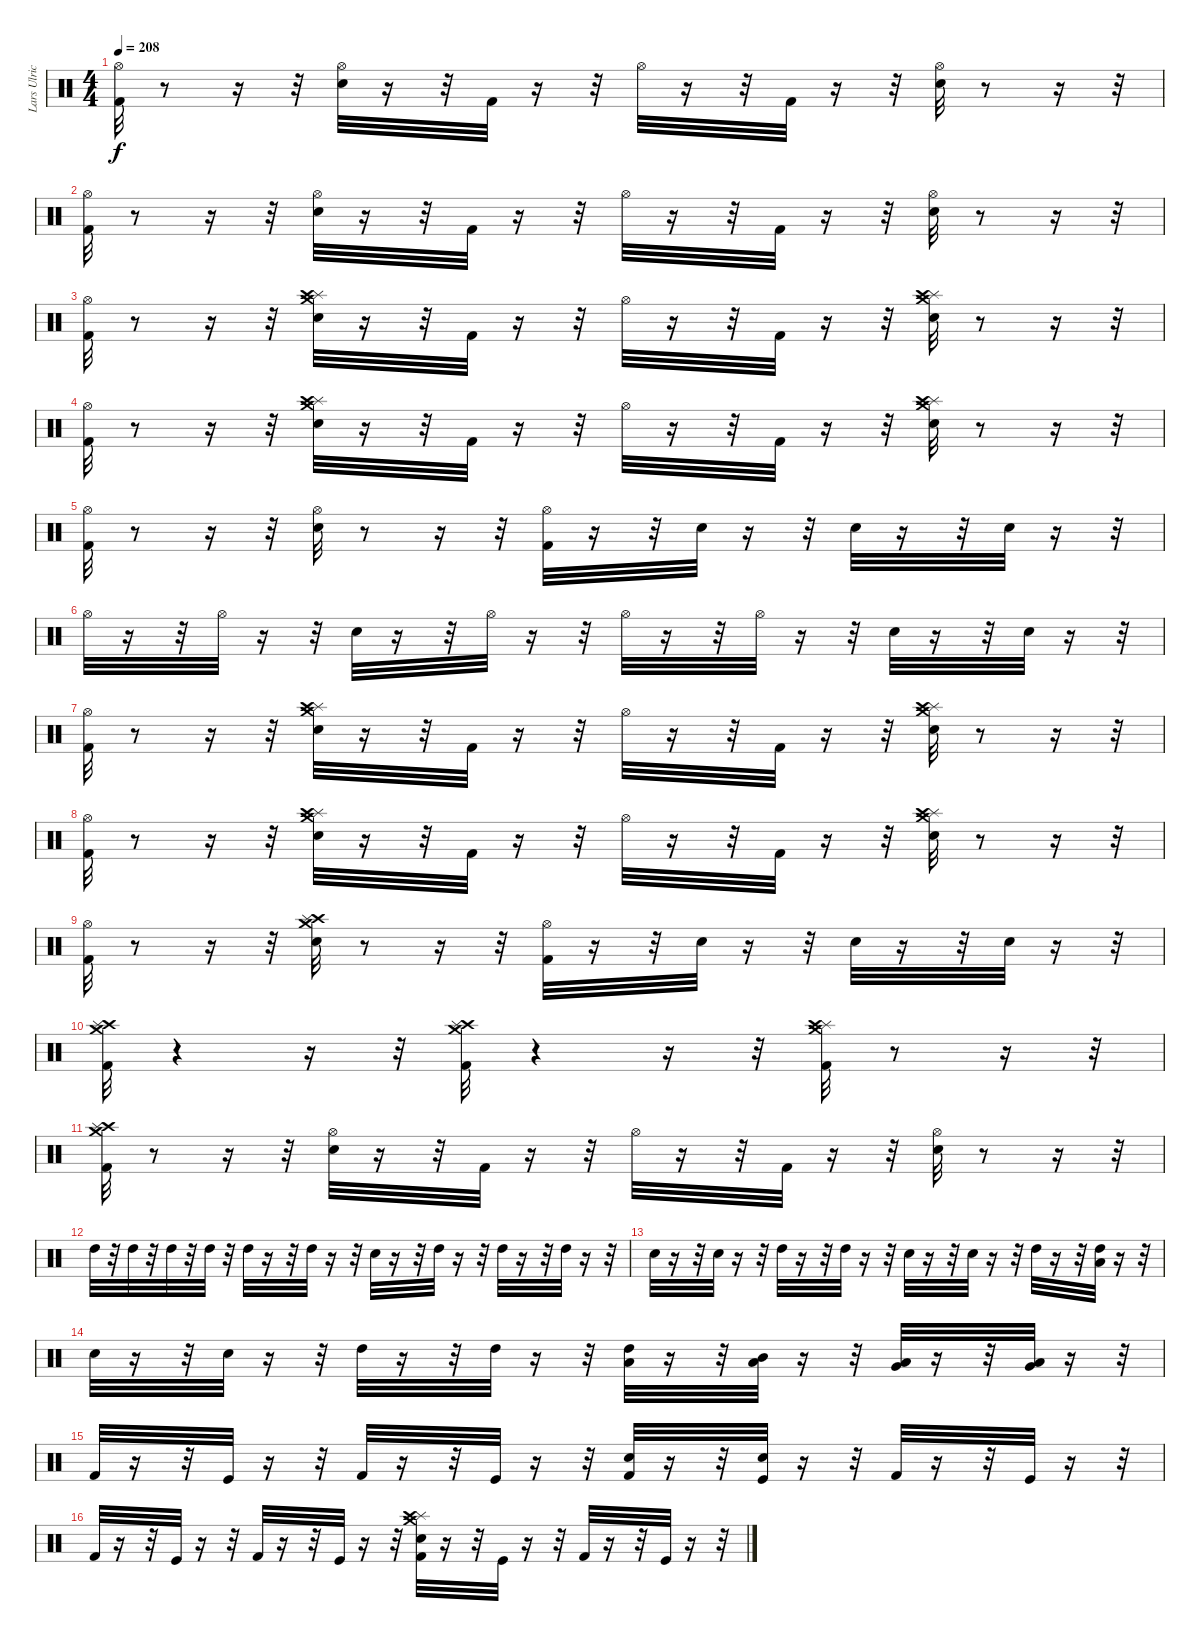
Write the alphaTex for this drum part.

\track ("Lars Ulrich (Drums)" "Lars Ulric") {instrument percussion}
\staff {score}
\articulation defaults
\ts (4 4)
\tempo 208
\clef neutral
\ks c
("Kick (hit) 2" "Hi-Hat (open)").32{dy f} r.8 r.16 r.32 ("Snare (hit) 2" "Hi-Hat (open)").32 r.16 r.32 "Kick (hit) 2".32 r.16 r.32 "Hi-Hat (open)".32 r.16 r.32 "Kick (hit) 2".32 r.16 r.32 ("Snare (hit) 2" "Hi-Hat (open)").32 r.8 r.16 r.32 |
("Kick (hit) 2" "Hi-Hat (open)").32 r.8 r.16 r.32 ("Snare (hit) 2" "Hi-Hat (open)").32 r.16 r.32 "Kick (hit) 2".32 r.16 r.32 "Hi-Hat (open)".32 r.16 r.32 "Kick (hit) 2".32 r.16 r.32 ("Snare (hit) 2" "Hi-Hat (open)").32 r.8 r.16 r.32 |
("Kick (hit) 2" "Hi-Hat (open)").32 r.8 r.16 r.32 ("Crash medium (hit)" "Splash (hit)" "Crash high (hit)" "Snare (hit) 2").32 r.16 r.32 "Kick (hit) 2".32 r.16 r.32 "Hi-Hat (open)".32 r.16 r.32 "Kick (hit) 2".32 r.16 r.32 ("Splash (hit)" "Crash medium (hit)" "Crash high (hit)" "Snare (hit) 2").32 r.8 r.16 r.32 |
("Kick (hit) 2" "Hi-Hat (open)").32 r.8 r.16 r.32 ("Crash medium (hit)" "Splash (hit)" "Crash high (hit)" "Snare (hit) 2").32 r.16 r.32 "Kick (hit) 2".32 r.16 r.32 "Hi-Hat (open)".32 r.16 r.32 "Kick (hit) 2".32 r.16 r.32 ("Splash (hit)" "Crash medium (hit)" "Crash high (hit)" "Snare (hit) 2").32 r.8 r.16 r.32 |
("Kick (hit) 2" "Hi-Hat (open)").32 r.8 r.16 r.32 ("Snare (hit) 2" "Hi-Hat (open)").32 r.8 r.16 r.32 ("Kick (hit) 2" "Hi-Hat (open)").32 r.16 r.32 "Snare (hit) 2".32 r.16 r.32 "Snare (hit) 2".32 r.16 r.32 "Snare (hit) 2".32 r.16 r.32 |
"Hi-Hat (open)".32 r.16 r.32 "Hi-Hat (open)".32 r.16 r.32 "Snare (hit) 2".32 r.16 r.32 "Hi-Hat (open)".32 r.16 r.32 "Hi-Hat (open)".32 r.16 r.32 "Hi-Hat (open)".32 r.16 r.32 "Snare (hit) 2".32 r.16 r.32 "Snare (hit) 2".32 r.16 r.32 |
("Kick (hit) 2" "Hi-Hat (open)").32 r.8 r.16 r.32 ("Crash medium (hit)" "Splash (hit)" "Crash high (hit)" "Snare (hit) 2").32 r.16 r.32 "Kick (hit) 2".32 r.16 r.32 "Hi-Hat (open)".32 r.16 r.32 "Kick (hit) 2".32 r.16 r.32 ("Splash (hit)" "Crash medium (hit)" "Crash high (hit)" "Snare (hit) 2").32 r.8 r.16 r.32 |
("Kick (hit) 2" "Hi-Hat (open)").32 r.8 r.16 r.32 ("Crash medium (hit)" "Splash (hit)" "Crash high (hit)" "Snare (hit) 2").32 r.16 r.32 "Kick (hit) 2".32 r.16 r.32 "Hi-Hat (open)".32 r.16 r.32 "Kick (hit) 2".32 r.16 r.32 ("Splash (hit)" "Crash medium (hit)" "Crash high (hit)" "Snare (hit) 2").32 r.8 r.16 r.32 |
("Kick (hit) 2" "Hi-Hat (open)").32 r.8 r.16 r.32 ("Crash high (hit)" "Crash medium (hit)" "Splash (hit)" "Snare (hit) 2").32 r.8 r.16 r.32 ("Kick (hit) 2" "Hi-Hat (open)").32 r.16 r.32 "Snare (hit) 2".32 r.16 r.32 "Snare (hit) 2".32 r.16 r.32 "Snare (hit) 2".32 r.16 r.32 |
("Kick (hit) 2" "Crash high (hit)" "Splash (hit)" "Crash medium (hit)").32 r.4 r.16 r.32 ("Kick (hit) 2" "Crash high (hit)" "Splash (hit)" "Crash medium (hit)").32 r.4 r.16 r.32 ("Kick (hit) 2" "Crash medium (hit)" "Splash (hit)" "Crash high (hit)").32 r.8 r.16 r.32 |
("Kick (hit) 2" "Crash high (hit)" "Crash medium (hit)" "Splash (hit)").32 r.8 r.16 r.32 ("Snare (hit) 2" "Hi-Hat (open)").32 r.16 r.32 "Kick (hit) 2".32 r.16 r.32 "Hi-Hat (open)".32 r.16 r.32 "Kick (hit) 2".32 r.16 r.32 ("Snare (hit) 2" "Hi-Hat (open)").32 r.8 r.16 r.32 |
"High Tom (hit)".32 r.32 "High Tom (hit)".32 r.32 "High Tom (hit)".32 r.32 "High Tom (hit)".32 r.32 "High Tom (hit)".32 r.16 r.32 "High Tom (hit)".32 r.16 r.32 "Snare (hit) 2".32 r.16 r.32 "High Tom (hit)".32 r.16 r.32 "High Tom (hit)".32 r.16 r.32 "High Tom (hit)".32 r.16 r.32 |
"Snare (hit) 2".32 r.16 r.32 "Snare (hit) 2".32 r.16 r.32 "High Tom (hit)".32 r.16 r.32 "High Tom (hit)".32 r.16 r.32 "Snare (hit) 2".32 r.16 r.32 "Snare (hit) 2".32 r.16 r.32 "High Tom (hit)".32 r.16 r.32 ("Low Tom (hit)" "High Tom (hit)").32 r.16 r.32 |
"Snare (hit) 2".32 r.16 r.32 "Snare (hit) 2".32 r.16 r.32 "High Tom (hit)".32 r.16 r.32 "High Tom (hit)".32 r.16 r.32 ("Low Tom (hit)" "High Tom (hit)").32 r.16 r.32 ("Low Tom (hit)" "Mid Tom (hit)").32 r.16 r.32 ("Low Tom (hit)" "Very Low Tom (hit)").32 r.16 r.32 ("Low Floor Tom (hit)" "Very Low Tom (hit)").32 r.16 r.32 |
"Kick (hit) 2".32 r.16 r.32 "Kick (hit)".32 r.16 r.32 "Kick (hit) 2".32 r.16 r.32 "Kick (hit)".32 r.16 r.32 ("Snare (hit) 2" "Kick (hit) 2").32 r.16 r.32 ("Snare (hit) 2" "Kick (hit)").32 r.16 r.32 "Kick (hit) 2".32 r.16 r.32 "Kick (hit)".32 r.16 r.32 |
"Kick (hit) 2".32 r.16 r.32 "Kick (hit)".32 r.16 r.32 "Kick (hit) 2".32 r.16 r.32 "Kick (hit)".32 r.16 r.32 ("Crash medium (hit)" "Splash (hit)" "Crash high (hit)" "Snare (hit) 2" "Kick (hit) 2").32 r.16 r.32 "Kick (hit)".32 r.16 r.32 "Kick (hit) 2".32 r.16 r.32 "Kick (hit)".32 r.16 r.32
